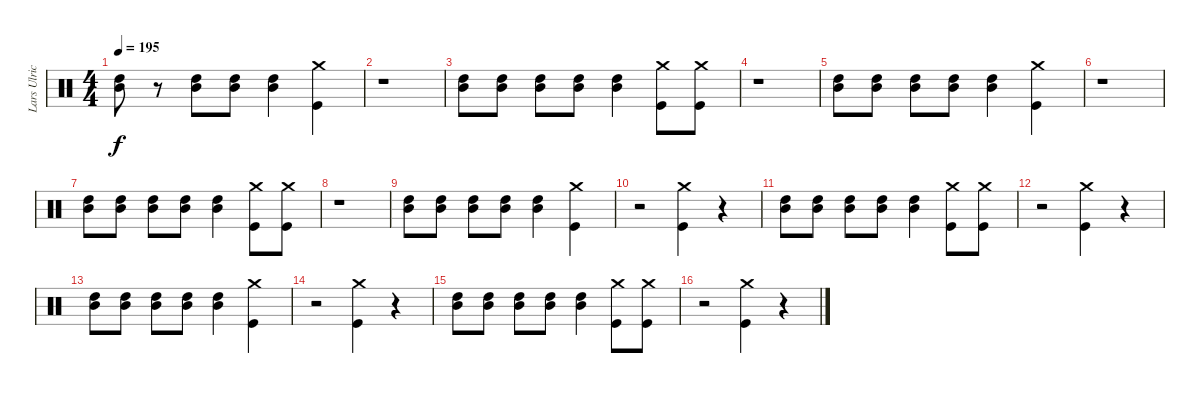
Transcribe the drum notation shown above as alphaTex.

\track ("Lars Ulrich (Drums)" "Lars Ulric") {instrument percussion}
\staff {score}
\articulation defaults
\ts (4 4)
\tempo 195
\tempo 185
\tempo 195
\clef neutral
\ks c
("High Tom (hit)" "Mid Tom (hit)").8{dy f} r.8 ("High Tom (hit)" "Mid Tom (hit)").8 ("High Tom (hit)" "Mid Tom (hit)").8 ("High Tom (hit)" "Mid Tom (hit)").4 ("Crash medium (hit)" "Kick (hit)").4 |
r.1 |
("High Tom (hit)" "Mid Tom (hit)").8 ("High Tom (hit)" "Mid Tom (hit)").8 ("High Tom (hit)" "Mid Tom (hit)").8 ("High Tom (hit)" "Mid Tom (hit)").8 ("High Tom (hit)" "Mid Tom (hit)").4 ("Crash medium (hit)" "Kick (hit)").8 ("Kick (hit)" "Crash medium (hit)").8 |
r.1 |
("High Tom (hit)" "Mid Tom (hit)").8 ("High Tom (hit)" "Mid Tom (hit)").8 ("High Tom (hit)" "Mid Tom (hit)").8 ("High Tom (hit)" "Mid Tom (hit)").8 ("High Tom (hit)" "Mid Tom (hit)").4 ("Crash medium (hit)" "Kick (hit)").4 |
r.1 |
("High Tom (hit)" "Mid Tom (hit)").8 ("High Tom (hit)" "Mid Tom (hit)").8 ("High Tom (hit)" "Mid Tom (hit)").8 ("High Tom (hit)" "Mid Tom (hit)").8 ("High Tom (hit)" "Mid Tom (hit)").4 ("Crash medium (hit)" "Kick (hit)").8 ("Kick (hit)" "Crash medium (hit)").8 |
r.1 |
("High Tom (hit)" "Mid Tom (hit)").8 ("High Tom (hit)" "Mid Tom (hit)").8 ("High Tom (hit)" "Mid Tom (hit)").8 ("High Tom (hit)" "Mid Tom (hit)").8 ("High Tom (hit)" "Mid Tom (hit)").4 ("Crash medium (hit)" "Kick (hit)").4 |
r.2 ("Kick (hit)" "Crash medium (hit)").4 r.4 |
("High Tom (hit)" "Mid Tom (hit)").8 ("High Tom (hit)" "Mid Tom (hit)").8 ("High Tom (hit)" "Mid Tom (hit)").8 ("High Tom (hit)" "Mid Tom (hit)").8 ("High Tom (hit)" "Mid Tom (hit)").4 ("Crash medium (hit)" "Kick (hit)").8 ("Kick (hit)" "Crash medium (hit)").8 |
r.2 ("Kick (hit)" "Crash medium (hit)").4 r.4 |
("High Tom (hit)" "Mid Tom (hit)").8 ("High Tom (hit)" "Mid Tom (hit)").8 ("High Tom (hit)" "Mid Tom (hit)").8 ("High Tom (hit)" "Mid Tom (hit)").8 ("High Tom (hit)" "Mid Tom (hit)").4 ("Crash medium (hit)" "Kick (hit)").4 |
r.2 ("Kick (hit)" "Crash medium (hit)").4 r.4 |
("High Tom (hit)" "Mid Tom (hit)").8 ("High Tom (hit)" "Mid Tom (hit)").8 ("High Tom (hit)" "Mid Tom (hit)").8 ("High Tom (hit)" "Mid Tom (hit)").8 ("High Tom (hit)" "Mid Tom (hit)").4 ("Crash medium (hit)" "Kick (hit)").8 ("Kick (hit)" "Crash medium (hit)").8 |
r.2 ("Kick (hit)" "Crash medium (hit)").4 r.4
